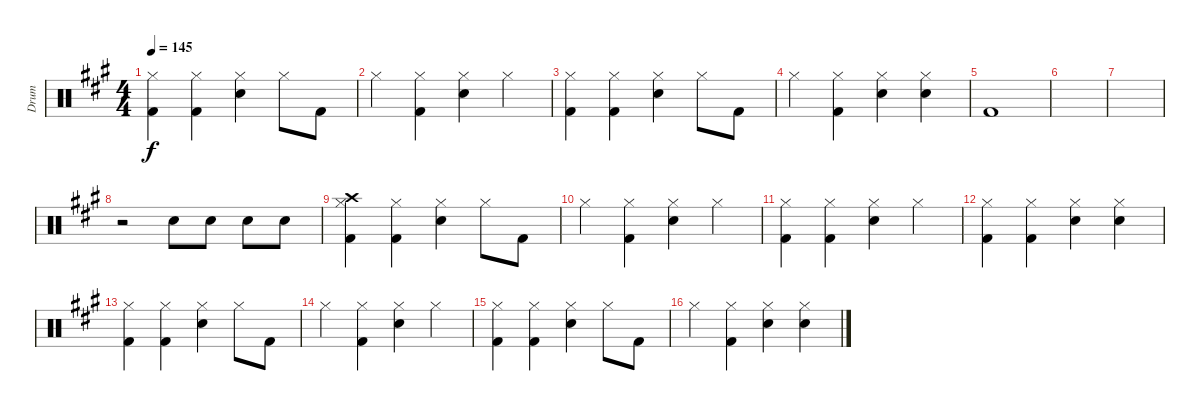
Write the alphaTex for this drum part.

\track ("Drum" "Drum") {instrument percussion}
\staff {score}
\articulation defaults
\ts (4 4)
\tempo 145
\clef neutral
\ks a
("Hi-Hat (closed)" "Kick (hit) 2").4{dy f} ("Hi-Hat (closed)" "Kick (hit) 2").4 ("Hi-Hat (closed)" "Electric Snare (hit)").4 "Hi-Hat (closed)".8 "Kick (hit) 2".8 |
"Hi-Hat (closed)".4 ("Hi-Hat (closed)" "Kick (hit) 2").4 ("Hi-Hat (closed)" "Electric Snare (hit)").4 "Hi-Hat (closed)".4 |
("Hi-Hat (closed)" "Kick (hit) 2").4 ("Hi-Hat (closed)" "Kick (hit) 2").4 ("Hi-Hat (closed)" "Electric Snare (hit)").4 "Hi-Hat (closed)".8 "Kick (hit) 2".8 |
"Hi-Hat (closed)".4 ("Hi-Hat (closed)" "Kick (hit) 2").4 ("Hi-Hat (closed)" "Electric Snare (hit)").4 ("Hi-Hat (closed)" "Electric Snare (hit)").4 |
"Kick (hit) 2".1 |
|
|
r.2 "Electric Snare (hit)".8 "Electric Snare (hit)".8 "Electric Snare (hit)".8 "Electric Snare (hit)".8 |
("Hi-Hat (closed)" "Kick (hit) 2" "Crash high (hit)").4 ("Hi-Hat (closed)" "Kick (hit) 2").4 ("Hi-Hat (closed)" "Electric Snare (hit)").4 "Hi-Hat (closed)".8 "Kick (hit) 2".8 |
"Hi-Hat (closed)".4 ("Hi-Hat (closed)" "Kick (hit) 2").4 ("Hi-Hat (closed)" "Electric Snare (hit)").4 "Hi-Hat (closed)".4 |
("Hi-Hat (closed)" "Kick (hit) 2").4 ("Hi-Hat (closed)" "Kick (hit) 2").4 ("Hi-Hat (closed)" "Electric Snare (hit)").4 "Hi-Hat (closed)".4 |
("Hi-Hat (closed)" "Kick (hit) 2").4 ("Hi-Hat (closed)" "Kick (hit) 2").4 ("Hi-Hat (closed)" "Electric Snare (hit)").4 ("Hi-Hat (closed)" "Electric Snare (hit)").4 |
("Hi-Hat (closed)" "Kick (hit) 2").4 ("Hi-Hat (closed)" "Kick (hit) 2").4 ("Hi-Hat (closed)" "Electric Snare (hit)").4 "Hi-Hat (closed)".8 "Kick (hit) 2".8 |
"Hi-Hat (closed)".4 ("Hi-Hat (closed)" "Kick (hit) 2").4 ("Hi-Hat (closed)" "Electric Snare (hit)").4 "Hi-Hat (closed)".4 |
("Hi-Hat (closed)" "Kick (hit) 2").4 ("Hi-Hat (closed)" "Kick (hit) 2").4 ("Hi-Hat (closed)" "Electric Snare (hit)").4 "Hi-Hat (closed)".8 "Kick (hit) 2".8 |
"Hi-Hat (closed)".4 ("Hi-Hat (closed)" "Kick (hit) 2").4 ("Hi-Hat (closed)" "Electric Snare (hit)").4 ("Hi-Hat (closed)" "Electric Snare (hit)").4
